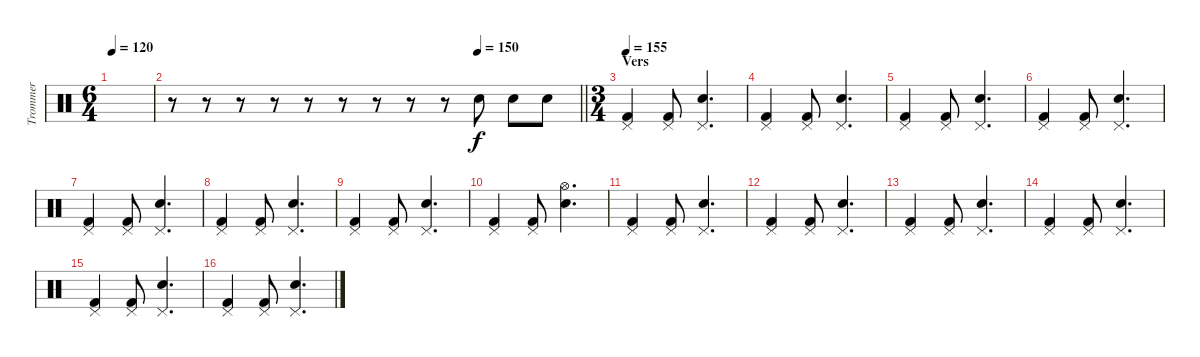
\track ("Trommer" "Trommer") {instrument percussion}
\staff {score}
\articulation defaults
\ts (6 4)
\tempo 120
\clef neutral
\ks c
|
\tempo (150 0.75)
\barLineRight lightlight
r.8 r.8 r.8 r.8 r.8 r.8 r.8 r.8 r.8 "Snare (hit) 2".8 "Snare (hit) 2".8 "Snare (hit) 2".8 |
\ts (3 4)
\section ("" "Vers")
\tempo 155
("Kick (hit) 2" "Pedal Hi-Hat (hit)").4 ("Kick (hit) 2" "Pedal Hi-Hat (hit)").8 ("Snare (hit) 2" "Pedal Hi-Hat (hit)").4{d} |
("Kick (hit) 2" "Pedal Hi-Hat (hit)").4 ("Kick (hit) 2" "Pedal Hi-Hat (hit)").8 ("Snare (hit) 2" "Pedal Hi-Hat (hit)").4{d} |
("Kick (hit) 2" "Pedal Hi-Hat (hit)").4 ("Kick (hit) 2" "Pedal Hi-Hat (hit)").8 ("Snare (hit) 2" "Pedal Hi-Hat (hit)").4{d} |
("Kick (hit) 2" "Pedal Hi-Hat (hit)").4 ("Kick (hit) 2" "Pedal Hi-Hat (hit)").8 ("Snare (hit) 2" "Pedal Hi-Hat (hit)").4{d} |
("Kick (hit) 2" "Pedal Hi-Hat (hit)").4 ("Kick (hit) 2" "Pedal Hi-Hat (hit)").8 ("Snare (hit) 2" "Pedal Hi-Hat (hit)").4{d} |
("Kick (hit) 2" "Pedal Hi-Hat (hit)").4 ("Kick (hit) 2" "Pedal Hi-Hat (hit)").8 ("Snare (hit) 2" "Pedal Hi-Hat (hit)").4{d} |
("Kick (hit) 2" "Pedal Hi-Hat (hit)").4 ("Kick (hit) 2" "Pedal Hi-Hat (hit)").8 ("Snare (hit) 2" "Pedal Hi-Hat (hit)").4{d} |
("Kick (hit) 2" "Pedal Hi-Hat (hit)").4 ("Kick (hit) 2" "Pedal Hi-Hat (hit)").8 ("Snare (hit) 2" "Hi-Hat (open)").4{d} |
("Kick (hit) 2" "Pedal Hi-Hat (hit)").4 ("Kick (hit) 2" "Pedal Hi-Hat (hit)").8 ("Snare (hit) 2" "Pedal Hi-Hat (hit)").4{d} |
("Kick (hit) 2" "Pedal Hi-Hat (hit)").4 ("Kick (hit) 2" "Pedal Hi-Hat (hit)").8 ("Snare (hit) 2" "Pedal Hi-Hat (hit)").4{d} |
("Kick (hit) 2" "Pedal Hi-Hat (hit)").4 ("Kick (hit) 2" "Pedal Hi-Hat (hit)").8 ("Snare (hit) 2" "Pedal Hi-Hat (hit)").4{d} |
("Kick (hit) 2" "Pedal Hi-Hat (hit)").4 ("Kick (hit) 2" "Pedal Hi-Hat (hit)").8 ("Snare (hit) 2" "Pedal Hi-Hat (hit)").4{d} |
("Kick (hit) 2" "Pedal Hi-Hat (hit)").4 ("Kick (hit) 2" "Pedal Hi-Hat (hit)").8 ("Snare (hit) 2" "Pedal Hi-Hat (hit)").4{d} |
("Kick (hit) 2" "Pedal Hi-Hat (hit)").4 ("Kick (hit) 2" "Pedal Hi-Hat (hit)").8 ("Snare (hit) 2" "Pedal Hi-Hat (hit)").4{d}
